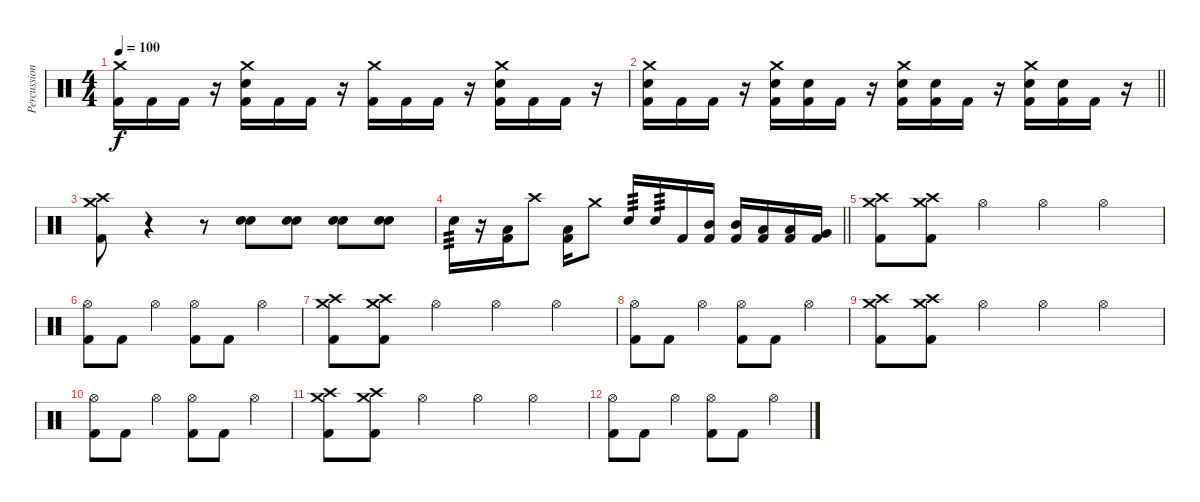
\track ("Percussion" "Percussion") {instrument percussion}
\staff {score}
\articulation defaults
\ts (4 4)
\tempo 100
\clef neutral
\ks c
("Crash medium (hit)" "Kick (hit) 2").16{dy f} "Kick (hit) 2".16 "Kick (hit) 2".16 r.16 ("Crash medium (hit)" "Electric Snare (hit)" "Kick (hit) 2").16 "Kick (hit) 2".16 "Kick (hit) 2".16 r.16 ("Crash medium (hit)" "Kick (hit) 2").16 "Kick (hit) 2".16 "Kick (hit) 2".16 r.16 ("Crash medium (hit)" "Electric Snare (hit)" "Kick (hit) 2").16 "Kick (hit) 2".16 "Kick (hit) 2".16 r.16 |
\barLineRight lightlight
("Crash medium (hit)" "Electric Snare (hit)" "Kick (hit) 2").16 "Kick (hit) 2".16 "Kick (hit) 2".16 r.16 ("Crash medium (hit)" "Electric Snare (hit)" "Kick (hit) 2").16 ("Electric Snare (hit)" "Kick (hit) 2").16 "Kick (hit) 2".16 r.16 ("Crash medium (hit)" "Electric Snare (hit)" "Kick (hit) 2").16 ("Electric Snare (hit)" "Kick (hit) 2").16 "Kick (hit) 2".16 r.16 ("Crash medium (hit)" "Electric Snare (hit)" "Kick (hit) 2").16 ("Electric Snare (hit)" "Kick (hit) 2").16 "Kick (hit) 2".16 r.16 |
("Crash medium (hit)" "Crash high (hit)" "Kick (hit) 2").8 r.4 r.8 ("Electric Snare (hit)" "Electric Snare (hit)").8 ("Electric Snare (hit)" "Electric Snare (hit)").8 ("Electric Snare (hit)" "Electric Snare (hit)").8 ("Electric Snare (hit)" "Electric Snare (hit)").8 |
\barLineRight lightlight "Electric Snare (hit)".16{tp 3}
r.16 ("Low Tom (hit)" "Kick (hit) 2").16 "Crash high (hit)".8 ("Low Tom (hit)" "Kick (hit) 2").16 "Crash medium (hit)".8 "Electric Snare (hit)".16{tp 3} "Electric Snare (hit)".16{tp 3} "Kick (hit) 2".16 ("Mid Tom (hit)" "Kick (hit) 2").16 ("Mid Tom (hit)" "Kick (hit) 2").16 ("Low Tom (hit)" "Kick (hit) 2").16 ("Low Tom (hit)" "Kick (hit) 2").16 ("Very Low Tom (hit)" "Kick (hit) 2").16 |
("Crash medium (hit)" "Crash high (hit)" "Kick (hit) 2").8 ("Crash medium (hit)" "Crash high (hit)" "Kick (hit) 2").8 "Hi-Hat (open)".4 "Hi-Hat (open)".4 "Hi-Hat (open)".4 |
("Hi-Hat (open)" "Kick (hit) 2").8 "Kick (hit) 2".8 "Hi-Hat (open)".4 ("Hi-Hat (open)" "Kick (hit) 2").8 "Kick (hit) 2".8 "Hi-Hat (open)".4 |
("Crash medium (hit)" "Crash high (hit)" "Kick (hit) 2").8 ("Crash medium (hit)" "Crash high (hit)" "Kick (hit) 2").8 "Hi-Hat (open)".4 "Hi-Hat (open)".4 "Hi-Hat (open)".4 |
("Hi-Hat (open)" "Kick (hit) 2").8 "Kick (hit) 2".8 "Hi-Hat (open)".4 ("Hi-Hat (open)" "Kick (hit) 2").8 "Kick (hit) 2".8 "Hi-Hat (open)".4 |
("Crash medium (hit)" "Crash high (hit)" "Kick (hit) 2").8 ("Crash medium (hit)" "Crash high (hit)" "Kick (hit) 2").8 "Hi-Hat (open)".4 "Hi-Hat (open)".4 "Hi-Hat (open)".4 |
("Hi-Hat (open)" "Kick (hit) 2").8 "Kick (hit) 2".8 "Hi-Hat (open)".4 ("Hi-Hat (open)" "Kick (hit) 2").8 "Kick (hit) 2".8 "Hi-Hat (open)".4 |
("Crash medium (hit)" "Crash high (hit)" "Kick (hit) 2").8 ("Crash medium (hit)" "Crash high (hit)" "Kick (hit) 2").8 "Hi-Hat (open)".4 "Hi-Hat (open)".4 "Hi-Hat (open)".4 |
("Hi-Hat (open)" "Kick (hit) 2").8 "Kick (hit) 2".8 "Hi-Hat (open)".4 ("Hi-Hat (open)" "Kick (hit) 2").8 "Kick (hit) 2".8 "Hi-Hat (open)".4
